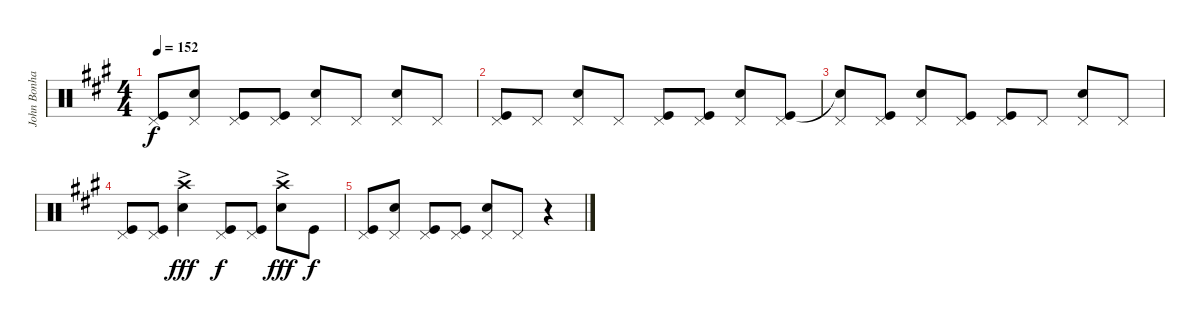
\track ("John Bonham" "John Bonha") {instrument percussion}
\staff {score}
\articulation defaults
\ts (4 4)
\tempo 152
\clef neutral
\ks a
("Pedal Hi-Hat (hit)" "Kick (hit)").8{dy f} ("Pedal Hi-Hat (hit)" "Snare (hit) 2").8 ("Pedal Hi-Hat (hit)" "Kick (hit)").8 ("Pedal Hi-Hat (hit)" "Kick (hit)").8 ("Pedal Hi-Hat (hit)" "Snare (hit) 2").8 "Pedal Hi-Hat (hit)".8 ("Pedal Hi-Hat (hit)" "Snare (hit) 2").8 "Pedal Hi-Hat (hit)".8 |
("Pedal Hi-Hat (hit)" "Kick (hit)").8 "Pedal Hi-Hat (hit)".8 ("Pedal Hi-Hat (hit)" "Snare (hit) 2").8 "Pedal Hi-Hat (hit)".8 ("Pedal Hi-Hat (hit)" "Kick (hit)").8 ("Pedal Hi-Hat (hit)" "Kick (hit)").8 ("Pedal Hi-Hat (hit)" "Snare (hit) 2").8 ("Pedal Hi-Hat (hit)" "Kick (hit)").8 |
("Pedal Hi-Hat (hit)" "Snare (hit)"{t}).8 ("Pedal Hi-Hat (hit)" "Kick (hit)").8 ("Pedal Hi-Hat (hit)" "Snare (hit) 2").8 ("Pedal Hi-Hat (hit)" "Kick (hit)").8 ("Pedal Hi-Hat (hit)" "Kick (hit)").8 "Pedal Hi-Hat (hit)".8 ("Pedal Hi-Hat (hit)" "Snare (hit) 2").8 "Pedal Hi-Hat (hit)".8 |
("Pedal Hi-Hat (hit)" "Kick (hit)").8 ("Pedal Hi-Hat (hit)" "Kick (hit)").8 ("Crash high (hit)"{ac} "Snare (hit) 2").4{dy fff} ("Pedal Hi-Hat (hit)" "Kick (hit)").8{dy f} ("Pedal Hi-Hat (hit)" "Kick (hit)").8 ("Crash high (hit)"{ac} "Snare (hit) 2").8{dy fff} "Kick (hit)".8{dy f} |
("Pedal Hi-Hat (hit)" "Kick (hit)").8 ("Pedal Hi-Hat (hit)" "Snare (hit) 2").8 ("Pedal Hi-Hat (hit)" "Kick (hit)").8 ("Pedal Hi-Hat (hit)" "Kick (hit)").8 ("Pedal Hi-Hat (hit)" "Snare (hit) 2").8 "Pedal Hi-Hat (hit)".8 r.4
